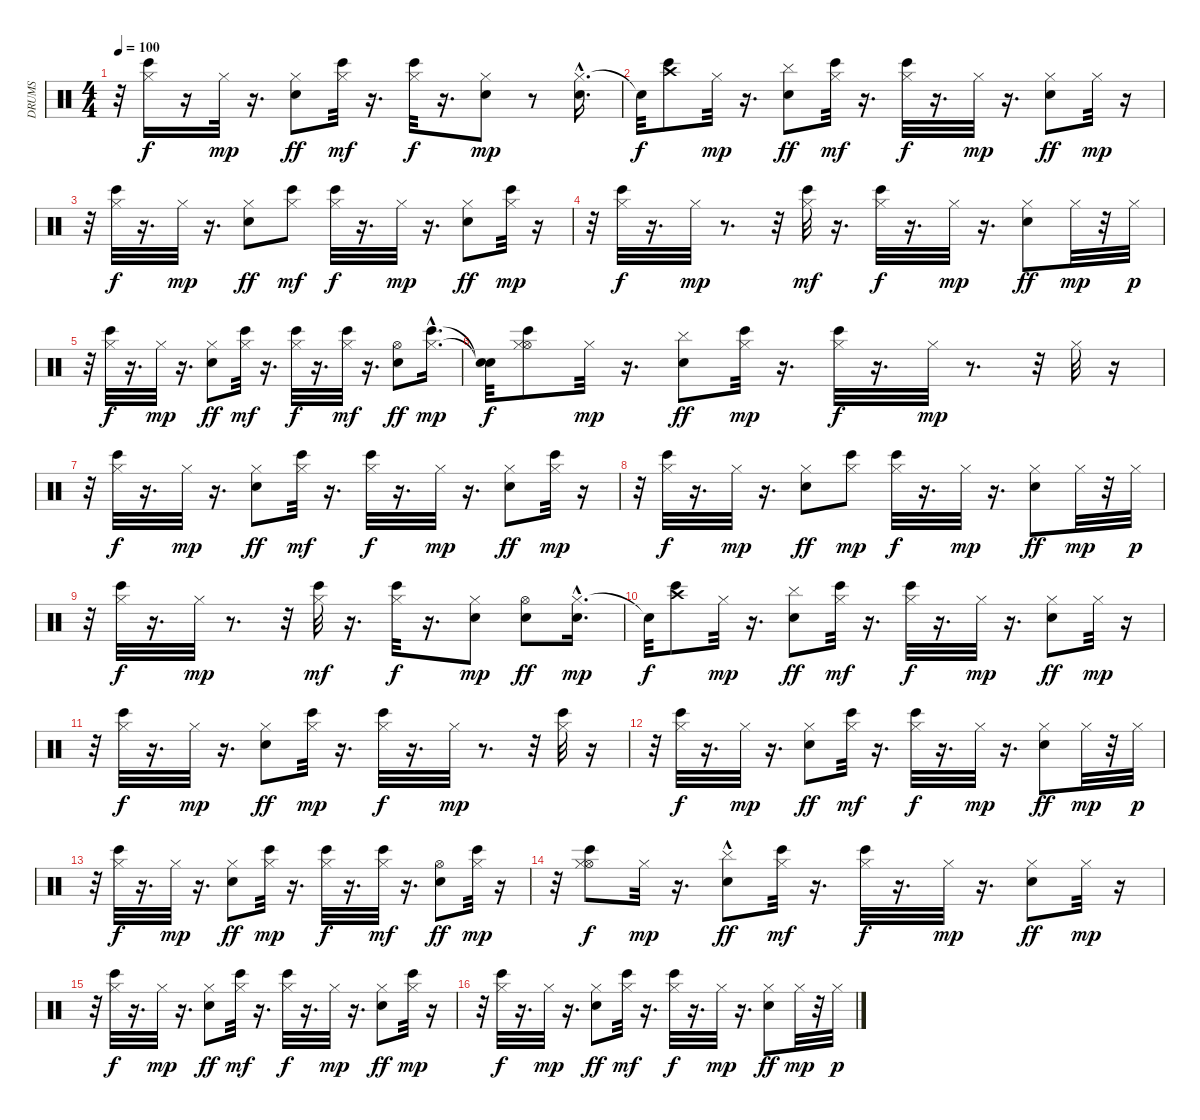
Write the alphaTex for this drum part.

\track ("DRUMS" "DRUMS") {instrument percussion}
\staff {score}
\articulation defaults
\ts (4 4)
\tempo 100
\clef neutral
\ks c
r.32{dy p} ("Hi-Hat (closed)" "Bongo High (hit)").16{dy f} r.16 "Hi-Hat (closed)".32{dy mp} r.16{d} ("Hi-Hat (closed)" "Electric Snare (hit)").8{dy ff} ("Hi-Hat (closed)" "Bongo High (hit)").32{dy mf} r.16{d} ("Hi-Hat (closed)" "Bongo High (hit)").32{dy f} r.16{d} ("Electric Snare (hit)" "Hi-Hat (closed)").8{dy mp} r.8 ("Hi-Hat (closed)" "Electric Snare (hit)"{hac}).16{d} |
"Snare (hit)"{t}.32{dy f} ("Crash high (hit)" "Bongo High (hit)").8 "Hi-Hat (closed)".32{dy mp} r.16{d} ("Cymbal (hit)" "Electric Snare (hit)").8{dy ff} ("Hi-Hat (closed)" "Bongo High (hit)").32{dy mf} r.16{d} ("Hi-Hat (closed)" "Bongo High (hit)").32{dy f} r.16{d} "Hi-Hat (closed)".32{dy mp} r.16{d} ("Hi-Hat (closed)" "Electric Snare (hit)").8{dy ff} "Hi-Hat (closed)".32{dy mp} r.16 |
r.32 ("Hi-Hat (closed)" "Bongo High (hit)").32{dy f} r.16{d} "Hi-Hat (closed)".32{dy mp} r.16{d} ("Hi-Hat (closed)" "Electric Snare (hit)").8{dy ff} ("Hi-Hat (closed)" "Bongo High (hit)").8{dy mf} ("Bongo High (hit)" "Hi-Hat (closed)").32{dy f} r.16{d} "Hi-Hat (closed)".32{dy mp} r.16{d} ("Hi-Hat (closed)" "Electric Snare (hit)").8{dy ff} ("Hi-Hat (closed)" "Bongo High (hit)").32{dy mp} r.16 |
r.32 ("Hi-Hat (closed)" "Bongo High (hit)").32{dy f} r.16{d} "Hi-Hat (closed)".32{dy mp} r.8{d} r.32 ("Hi-Hat (closed)" "Bongo High (hit)").32{dy mf} r.16{d} ("Bongo High (hit)" "Hi-Hat (closed)").32{dy f} r.16{d} "Hi-Hat (closed)".32{dy mp} r.16{d} ("Hi-Hat (closed)" "Electric Snare (hit)").8{dy ff} "Hi-Hat (closed)".32{dy mp} r.32 "Hi-Hat (closed)".32{dy p} |
r.32 ("Hi-Hat (closed)" "Bongo High (hit)").32{dy f} r.16{d} "Hi-Hat (closed)".32{dy mp} r.16{d} ("Hi-Hat (closed)" "Electric Snare (hit)").8{dy ff} ("Hi-Hat (closed)" "Bongo High (hit)").32{dy mf} r.16{d} ("Hi-Hat (closed)" "Bongo High (hit)").32{dy f} r.16{d} ("Hi-Hat (closed)" "Bongo High (hit)").32{dy mf} r.16{d} ("Hi-Hat (open)" "Electric Snare (hit)").8{dy ff} ("Hi-Hat (closed)"{hac} "Bongo High (hit)"{hac}).16{d dy mp} |
("Snare (hit)"{t} "Snare (hit)"{t}).32{dy f} ("Hi-Hat (open)" "Bongo High (hit)" "Hi-Hat (closed)").8 "Hi-Hat (closed)".32{dy mp} r.16{d} ("Cymbal (hit)" "Electric Snare (hit)").8{dy ff} ("Bongo High (hit)" "Hi-Hat (closed)").32{dy mp} r.16{d} ("Hi-Hat (closed)" "Bongo High (hit)").32{dy f} r.16{d} "Hi-Hat (closed)".32{dy mp} r.8{d} r.32 "Hi-Hat (closed)".32 r.16 |
r.32 ("Hi-Hat (closed)" "Bongo High (hit)").32{dy f} r.16{d} "Hi-Hat (closed)".32{dy mp} r.16{d} ("Hi-Hat (closed)" "Electric Snare (hit)").8{dy ff} ("Hi-Hat (closed)" "Bongo High (hit)").32{dy mf} r.16{d} ("Hi-Hat (closed)" "Bongo High (hit)").32{dy f} r.16{d} "Hi-Hat (closed)".32{dy mp} r.16{d} ("Hi-Hat (closed)" "Electric Snare (hit)").8{dy ff} ("Hi-Hat (closed)" "Bongo High (hit)").32{dy mp} r.16 |
r.32 ("Hi-Hat (closed)" "Bongo High (hit)").32{dy f} r.16{d} "Hi-Hat (closed)".32{dy mp} r.16{d} ("Hi-Hat (closed)" "Electric Snare (hit)").8{dy ff} ("Bongo High (hit)" "Hi-Hat (closed)").8{dy mp} ("Hi-Hat (closed)" "Bongo High (hit)").32{dy f} r.16{d} "Hi-Hat (closed)".32{dy mp} r.16{d} ("Hi-Hat (closed)" "Electric Snare (hit)").8{dy ff} "Hi-Hat (closed)".32{dy mp} r.32 "Hi-Hat (closed)".32{dy p} |
r.32 ("Bongo High (hit)" "Hi-Hat (closed)").32{dy f} r.16{d} "Hi-Hat (closed)".32{dy mp} r.8{d} r.32 ("Hi-Hat (closed)" "Bongo High (hit)").32{dy mf} r.16{d} ("Hi-Hat (closed)" "Bongo High (hit)").32{dy f} r.16{d} ("Hi-Hat (closed)" "Electric Snare (hit)").8{dy mp} ("Hi-Hat (open)" "Electric Snare (hit)").8{dy ff} ("Hi-Hat (closed)" "Electric Snare (hit)"{hac}).16{d dy mp} |
"Snare (hit)"{t}.32{dy f} ("Crash high (hit)" "Bongo High (hit)").8 "Hi-Hat (closed)".32{dy mp} r.16{d} ("Cymbal (hit)" "Electric Snare (hit)").8{dy ff} ("Hi-Hat (closed)" "Bongo High (hit)").32{dy mf} r.16{d} ("Hi-Hat (closed)" "Bongo High (hit)").32{dy f} r.16{d} "Hi-Hat (closed)".32{dy mp} r.16{d} ("Hi-Hat (closed)" "Electric Snare (hit)").8{dy ff} "Hi-Hat (closed)".32{dy mp} r.16 |
r.32 ("Hi-Hat (closed)" "Bongo High (hit)").32{dy f} r.16{d} "Hi-Hat (closed)".32{dy mp} r.16{d} ("Hi-Hat (closed)" "Electric Snare (hit)").8{dy ff} ("Bongo High (hit)" "Hi-Hat (closed)").32{dy mp} r.16{d} ("Hi-Hat (closed)" "Bongo High (hit)").32{dy f} r.16{d} "Hi-Hat (closed)".32{dy mp} r.8{d} r.32 ("Hi-Hat (closed)" "Bongo High (hit)").32 r.16 |
r.32 ("Bongo High (hit)" "Hi-Hat (closed)").32{dy f} r.16{d} "Hi-Hat (closed)".32{dy mp} r.16{d} ("Electric Snare (hit)" "Hi-Hat (closed)").8{dy ff} ("Hi-Hat (closed)" "Bongo High (hit)").32{dy mf} r.16{d} ("Hi-Hat (closed)" "Bongo High (hit)").32{dy f} r.16{d} "Hi-Hat (closed)".32{dy mp} r.16{d} ("Hi-Hat (closed)" "Electric Snare (hit)").8{dy ff} "Hi-Hat (closed)".32{dy mp} r.32 "Hi-Hat (closed)".32{dy p} |
r.32 ("Bongo High (hit)" "Hi-Hat (closed)").32{dy f} r.16{d} "Hi-Hat (closed)".32{dy mp} r.16{d} ("Hi-Hat (closed)" "Electric Snare (hit)").8{dy ff} ("Bongo High (hit)" "Hi-Hat (closed)").32{dy mp} r.16{d} ("Hi-Hat (closed)" "Bongo High (hit)").32{dy f} r.16{d} ("Hi-Hat (closed)" "Bongo High (hit)").32{dy mf} r.16{d} ("Hi-Hat (open)" "Electric Snare (hit)").8{dy ff} ("Bongo High (hit)" "Hi-Hat (closed)").32{dy mp} r.16 |
r.32 ("Hi-Hat (open)" "Bongo High (hit)" "Hi-Hat (closed)").8{dy f} "Hi-Hat (closed)".32{dy mp} r.16{d} ("Cymbal (hit)"{hac} "Electric Snare (hit)").8{dy ff} ("Hi-Hat (closed)" "Bongo High (hit)").32{dy mf} r.16{d} ("Bongo High (hit)" "Hi-Hat (closed)").32{dy f} r.16{d} "Hi-Hat (closed)".32{dy mp} r.16{d} ("Hi-Hat (closed)" "Electric Snare (hit)").8{dy ff} "Hi-Hat (closed)".32{dy mp} r.16 |
r.32 ("Hi-Hat (closed)" "Bongo High (hit)").32{dy f} r.16{d} "Hi-Hat (closed)".32{dy mp} r.16{d} ("Hi-Hat (closed)" "Electric Snare (hit)").8{dy ff} ("Hi-Hat (closed)" "Bongo High (hit)").32{dy mf} r.16{d} ("Hi-Hat (closed)" "Bongo High (hit)").32{dy f} r.16{d} "Hi-Hat (closed)".32{dy mp} r.16{d} ("Electric Snare (hit)" "Hi-Hat (closed)").8{dy ff} ("Hi-Hat (closed)" "Bongo High (hit)").32{dy mp} r.16 |
r.32 ("Bongo High (hit)" "Hi-Hat (closed)").32{dy f} r.16{d} "Hi-Hat (closed)".32{dy mp} r.16{d} ("Hi-Hat (closed)" "Electric Snare (hit)").8{dy ff} ("Hi-Hat (closed)" "Bongo High (hit)").32{dy mf} r.16{d} ("Hi-Hat (closed)" "Bongo High (hit)").32{dy f} r.16{d} "Hi-Hat (closed)".32{dy mp} r.16{d} ("Hi-Hat (closed)" "Electric Snare (hit)").8{dy ff} "Hi-Hat (closed)".32{dy mp} r.32 "Hi-Hat (closed)".32{dy p}
